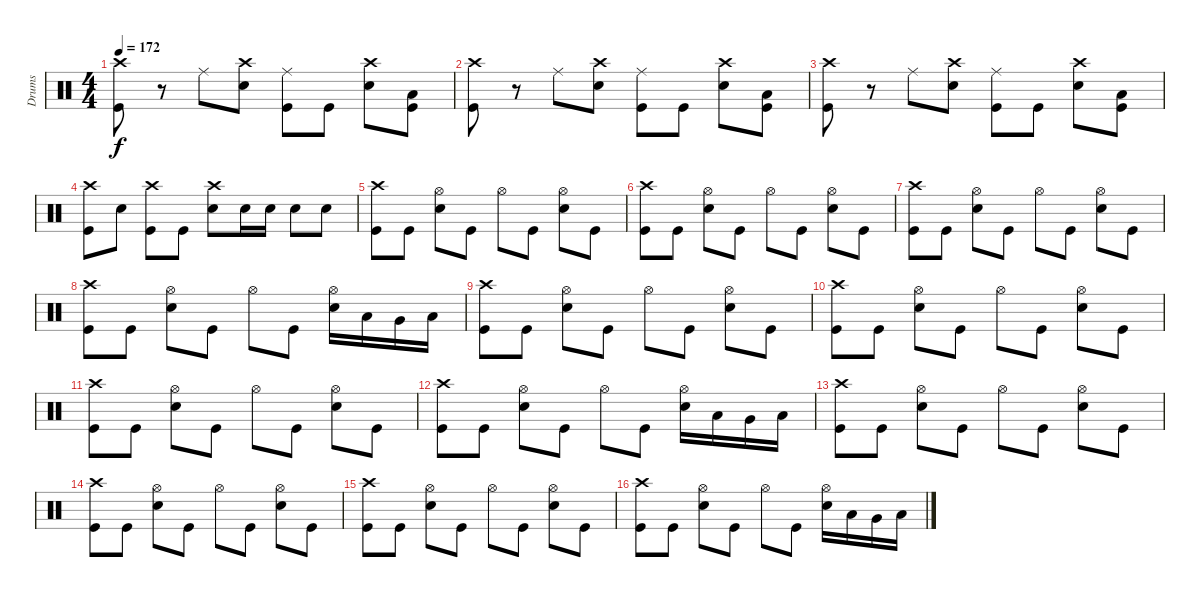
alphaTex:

\track ("Drums" "Drums") {instrument percussion}
\staff {score}
\articulation defaults
\ts (4 4)
\tempo 172
\clef neutral
\ks c
("Crash high (hit)" "Kick (hit)").8{dy f} r.8 "Ride (middle)".8 ("Crash high (hit)" "Snare (hit) 2").8 ("Ride (middle)" "Kick (hit)").8 "Kick (hit)".8 ("Crash high (hit)" "Snare (hit) 2").8 ("Low Tom (hit)" "Kick (hit)").8 |
("Crash high (hit)" "Kick (hit)").8 r.8 "Ride (middle)".8 ("Crash high (hit)" "Snare (hit) 2").8 ("Ride (middle)" "Kick (hit)").8 "Kick (hit)".8 ("Crash high (hit)" "Snare (hit) 2").8 ("Low Tom (hit)" "Kick (hit)").8 |
("Crash high (hit)" "Kick (hit)").8 r.8 "Ride (middle)".8 ("Crash high (hit)" "Snare (hit) 2").8 ("Ride (middle)" "Kick (hit)").8 "Kick (hit)".8 ("Crash high (hit)" "Snare (hit) 2").8 ("Low Tom (hit)" "Kick (hit)").8 |
("Crash high (hit)" "Kick (hit)").8 "Snare (hit) 2".8 ("Crash high (hit)" "Kick (hit)").8 "Kick (hit)".8 ("Crash high (hit)" "Snare (hit) 2").8 "Snare (hit) 2".16 "Snare (hit) 2".16 "Snare (hit) 2".8 "Snare (hit) 2".8 |
("Crash high (hit)" "Kick (hit)").8 "Kick (hit)".8 ("Hi-Hat (open)" "Snare (hit) 2").8 "Kick (hit)".8 "Hi-Hat (open)".8 "Kick (hit)".8 ("Hi-Hat (open)" "Snare (hit) 2").8 "Kick (hit)".8 |
("Crash high (hit)" "Kick (hit)").8 "Kick (hit)".8 ("Hi-Hat (open)" "Snare (hit) 2").8 "Kick (hit)".8 "Hi-Hat (open)".8 "Kick (hit)".8 ("Hi-Hat (open)" "Snare (hit) 2").8 "Kick (hit)".8 |
("Crash high (hit)" "Kick (hit)").8 "Kick (hit)".8 ("Hi-Hat (open)" "Snare (hit) 2").8 "Kick (hit)".8 "Hi-Hat (open)".8 "Kick (hit)".8 ("Hi-Hat (open)" "Snare (hit) 2").8 "Kick (hit)".8 |
("Crash high (hit)" "Kick (hit)").8 "Kick (hit)".8 ("Hi-Hat (open)" "Snare (hit) 2").8 "Kick (hit)".8 "Hi-Hat (open)".8 "Kick (hit)".8 ("Hi-Hat (open)" "Snare (hit) 2").16 "Low Tom (hit)".16 "Very Low Tom (hit)".16 "Low Floor Tom (hit)".16 |
("Crash high (hit)" "Kick (hit)").8 "Kick (hit)".8 ("Hi-Hat (open)" "Snare (hit) 2").8 "Kick (hit)".8 "Hi-Hat (open)".8 "Kick (hit)".8 ("Hi-Hat (open)" "Snare (hit) 2").8 "Kick (hit)".8 |
("Crash high (hit)" "Kick (hit)").8 "Kick (hit)".8 ("Hi-Hat (open)" "Snare (hit) 2").8 "Kick (hit)".8 "Hi-Hat (open)".8 "Kick (hit)".8 ("Hi-Hat (open)" "Snare (hit) 2").8 "Kick (hit)".8 |
("Crash high (hit)" "Kick (hit)").8 "Kick (hit)".8 ("Hi-Hat (open)" "Snare (hit) 2").8 "Kick (hit)".8 "Hi-Hat (open)".8 "Kick (hit)".8 ("Hi-Hat (open)" "Snare (hit) 2").8 "Kick (hit)".8 |
("Crash high (hit)" "Kick (hit)").8 "Kick (hit)".8 ("Hi-Hat (open)" "Snare (hit) 2").8 "Kick (hit)".8 "Hi-Hat (open)".8 "Kick (hit)".8 ("Hi-Hat (open)" "Snare (hit) 2").16 "Low Tom (hit)".16 "Very Low Tom (hit)".16 "Low Floor Tom (hit)".16 |
("Crash high (hit)" "Kick (hit)").8 "Kick (hit)".8 ("Hi-Hat (open)" "Snare (hit) 2").8 "Kick (hit)".8 "Hi-Hat (open)".8 "Kick (hit)".8 ("Hi-Hat (open)" "Snare (hit) 2").8 "Kick (hit)".8 |
("Crash high (hit)" "Kick (hit)").8 "Kick (hit)".8 ("Hi-Hat (open)" "Snare (hit) 2").8 "Kick (hit)".8 "Hi-Hat (open)".8 "Kick (hit)".8 ("Hi-Hat (open)" "Snare (hit) 2").8 "Kick (hit)".8 |
("Crash high (hit)" "Kick (hit)").8 "Kick (hit)".8 ("Hi-Hat (open)" "Snare (hit) 2").8 "Kick (hit)".8 "Hi-Hat (open)".8 "Kick (hit)".8 ("Hi-Hat (open)" "Snare (hit) 2").8 "Kick (hit)".8 |
("Crash high (hit)" "Kick (hit)").8 "Kick (hit)".8 ("Hi-Hat (open)" "Snare (hit) 2").8 "Kick (hit)".8 "Hi-Hat (open)".8 "Kick (hit)".8 ("Hi-Hat (open)" "Snare (hit) 2").16 "Low Tom (hit)".16 "Very Low Tom (hit)".16 "Low Floor Tom (hit)".16
